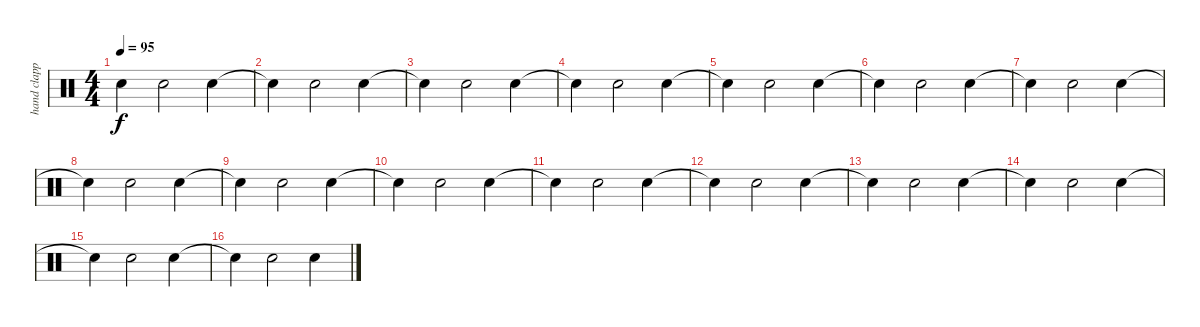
\track ("hand clapping" "hand clapp") {instrument percussion}
\staff {score}
\articulation defaults
\ts (4 4)
\tempo 95
\clef neutral
\ks c "Snare (hit)"{t}.4{dy f} "Hand Clap (hit)".2 "Hand Clap (hit)".4
|
"Snare (hit)"{t}.4 "Hand Clap (hit)".2 "Hand Clap (hit)".4 |
"Snare (hit)"{t}.4 "Hand Clap (hit)".2 "Hand Clap (hit)".4 |
"Snare (hit)"{t}.4 "Hand Clap (hit)".2 "Hand Clap (hit)".4 |
"Snare (hit)"{t}.4 "Hand Clap (hit)".2 "Hand Clap (hit)".4 |
"Snare (hit)"{t}.4 "Hand Clap (hit)".2 "Hand Clap (hit)".4 |
"Snare (hit)"{t}.4 "Hand Clap (hit)".2 "Hand Clap (hit)".4 |
"Snare (hit)"{t}.4 "Hand Clap (hit)".2 "Hand Clap (hit)".4 |
"Snare (hit)"{t}.4 "Hand Clap (hit)".2 "Hand Clap (hit)".4 |
"Snare (hit)"{t}.4 "Hand Clap (hit)".2 "Hand Clap (hit)".4 |
"Snare (hit)"{t}.4 "Hand Clap (hit)".2 "Hand Clap (hit)".4 |
"Snare (hit)"{t}.4 "Hand Clap (hit)".2 "Hand Clap (hit)".4 |
"Snare (hit)"{t}.4 "Hand Clap (hit)".2 "Hand Clap (hit)".4 |
"Snare (hit)"{t}.4 "Hand Clap (hit)".2 "Hand Clap (hit)".4 |
"Snare (hit)"{t}.4 "Hand Clap (hit)".2 "Hand Clap (hit)".4 |
"Snare (hit)"{t}.4 "Hand Clap (hit)".2 "Hand Clap (hit)".4
